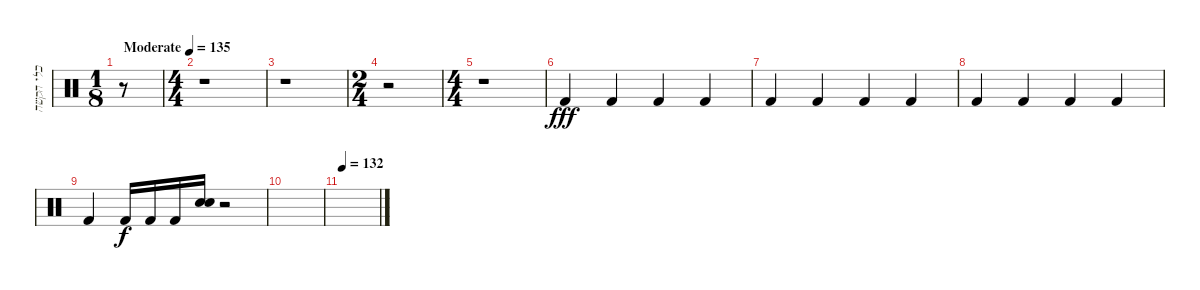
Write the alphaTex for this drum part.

\track ("כלי הקשה" "כלי הקשה") {instrument percussion}
\staff {score}
\articulation defaults
\ts (1 8)
\tempo (135 "Moderate")
\clef neutral
\ks c
r.8{dy fff} |
\ts (4 4)
r.1 |
r.1 |
\ts (2 4)
r.2 |
\ts (4 4)
r.1 |
"Kick (hit) 2".4 "Kick (hit) 2".4 "Kick (hit) 2".4 "Kick (hit) 2".4 |
"Kick (hit) 2".4 "Kick (hit) 2".4 "Kick (hit) 2".4 "Kick (hit) 2".4 |
"Kick (hit) 2".4 "Kick (hit) 2".4 "Kick (hit) 2".4 "Kick (hit) 2".4 |
"Kick (hit) 2".4 "Kick (hit) 2".16{dy f} "Kick (hit) 2".16 "Kick (hit) 2".16 ("Snare (hit) 2" "Snare (hit) 2").16 r.2 |
|
\tempo 132
